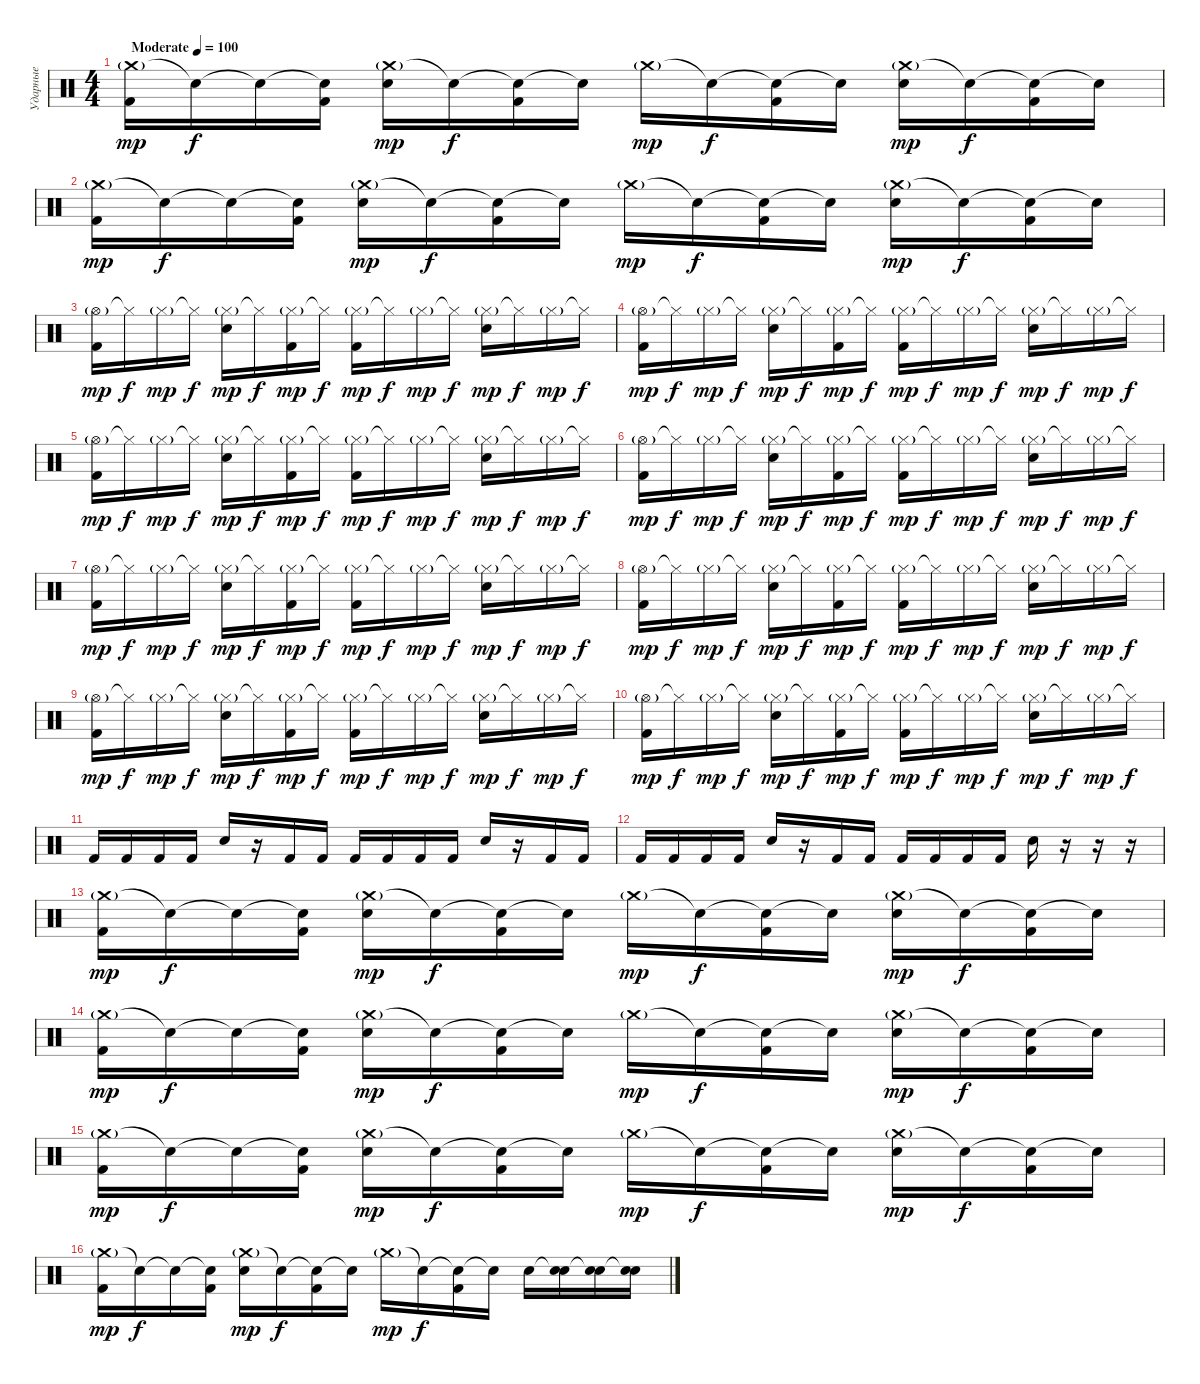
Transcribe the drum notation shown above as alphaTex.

\track ("Ударные" "Ударные") {instrument percussion}
\staff {score}
\articulation defaults
\ts (4 4)
\tempo (100 "Moderate")
\clef neutral
\ks c
("Crash medium (hit)"{g} "Kick (hit) 2").16{dy mp} "Snare (hit)"{t}.16{dy f} "Snare (hit)"{t}.16 ("Snare (hit)"{t} "Kick (hit) 2").16 ("Crash medium (hit)"{g} "Electric Snare (hit)").16{dy mp} "Snare (hit)"{t}.16{dy f} ("Snare (hit)"{t} "Kick (hit) 2").16 "Snare (hit)"{t}.16 "Crash medium (hit)"{g}.16{dy mp} "Snare (hit)"{t}.16{dy f} ("Snare (hit)"{t} "Kick (hit) 2").16 "Snare (hit)"{t}.16 ("Crash medium (hit)"{g} "Electric Snare (hit)").16{dy mp} "Snare (hit)"{t}.16{dy f} ("Snare (hit)"{t} "Kick (hit) 2").16 "Snare (hit)"{t}.16 |
("Crash medium (hit)"{g} "Kick (hit) 2").16{dy mp} "Snare (hit)"{t}.16{dy f} "Snare (hit)"{t}.16 ("Snare (hit)"{t} "Kick (hit) 2").16 ("Crash medium (hit)"{g} "Electric Snare (hit)").16{dy mp} "Snare (hit)"{t}.16{dy f} ("Snare (hit)"{t} "Kick (hit) 2").16 "Snare (hit)"{t}.16 "Crash medium (hit)"{g}.16{dy mp} "Snare (hit)"{t}.16{dy f} ("Snare (hit)"{t} "Kick (hit) 2").16 "Snare (hit)"{t}.16 ("Crash medium (hit)"{g} "Electric Snare (hit)").16{dy mp} "Snare (hit)"{t}.16{dy f} ("Snare (hit)"{t} "Kick (hit) 2").16 "Snare (hit)"{t}.16 |
("Hi-Hat (open)"{g} "Kick (hit) 2").16{dy mp} "Hi-Hat (closed)"{t}.16{dy f} "Hi-Hat (closed)"{g}.16{dy mp} "Hi-Hat (closed)"{t}.16{dy f} ("Hi-Hat (closed)"{g} "Electric Snare (hit)").16{dy mp} "Hi-Hat (closed)"{t}.16{dy f} ("Hi-Hat (closed)"{g} "Kick (hit) 2").16{dy mp} "Hi-Hat (closed)"{t}.16{dy f} ("Hi-Hat (closed)"{g} "Kick (hit) 2").16{dy mp} "Hi-Hat (closed)"{t}.16{dy f} "Hi-Hat (closed)"{g}.16{dy mp} "Hi-Hat (closed)"{t}.16{dy f} ("Hi-Hat (closed)"{g} "Electric Snare (hit)").16{dy mp} "Hi-Hat (closed)"{t}.16{dy f} "Hi-Hat (closed)"{g}.16{dy mp} "Hi-Hat (closed)"{t}.16{dy f} |
("Hi-Hat (open)"{g} "Kick (hit) 2").16{dy mp} "Hi-Hat (closed)"{t}.16{dy f} "Hi-Hat (closed)"{g}.16{dy mp} "Hi-Hat (closed)"{t}.16{dy f} ("Hi-Hat (closed)"{g} "Electric Snare (hit)").16{dy mp} "Hi-Hat (closed)"{t}.16{dy f} ("Hi-Hat (closed)"{g} "Kick (hit) 2").16{dy mp} "Hi-Hat (closed)"{t}.16{dy f} ("Hi-Hat (closed)"{g} "Kick (hit) 2").16{dy mp} "Hi-Hat (closed)"{t}.16{dy f} "Hi-Hat (closed)"{g}.16{dy mp} "Hi-Hat (closed)"{t}.16{dy f} ("Hi-Hat (closed)"{g} "Electric Snare (hit)").16{dy mp} "Hi-Hat (closed)"{t}.16{dy f} "Hi-Hat (closed)"{g}.16{dy mp} "Hi-Hat (closed)"{t}.16{dy f} |
("Hi-Hat (open)"{g} "Kick (hit) 2").16{dy mp} "Hi-Hat (closed)"{t}.16{dy f} "Hi-Hat (closed)"{g}.16{dy mp} "Hi-Hat (closed)"{t}.16{dy f} ("Hi-Hat (closed)"{g} "Electric Snare (hit)").16{dy mp} "Hi-Hat (closed)"{t}.16{dy f} ("Hi-Hat (closed)"{g} "Kick (hit) 2").16{dy mp} "Hi-Hat (closed)"{t}.16{dy f} ("Hi-Hat (closed)"{g} "Kick (hit) 2").16{dy mp} "Hi-Hat (closed)"{t}.16{dy f} "Hi-Hat (closed)"{g}.16{dy mp} "Hi-Hat (closed)"{t}.16{dy f} ("Hi-Hat (closed)"{g} "Electric Snare (hit)").16{dy mp} "Hi-Hat (closed)"{t}.16{dy f} "Hi-Hat (closed)"{g}.16{dy mp} "Hi-Hat (closed)"{t}.16{dy f} |
("Hi-Hat (open)"{g} "Kick (hit) 2").16{dy mp} "Hi-Hat (closed)"{t}.16{dy f} "Hi-Hat (closed)"{g}.16{dy mp} "Hi-Hat (closed)"{t}.16{dy f} ("Hi-Hat (closed)"{g} "Electric Snare (hit)").16{dy mp} "Hi-Hat (closed)"{t}.16{dy f} ("Hi-Hat (closed)"{g} "Kick (hit) 2").16{dy mp} "Hi-Hat (closed)"{t}.16{dy f} ("Hi-Hat (closed)"{g} "Kick (hit) 2").16{dy mp} "Hi-Hat (closed)"{t}.16{dy f} "Hi-Hat (closed)"{g}.16{dy mp} "Hi-Hat (closed)"{t}.16{dy f} ("Hi-Hat (closed)"{g} "Electric Snare (hit)").16{dy mp} "Hi-Hat (closed)"{t}.16{dy f} "Hi-Hat (closed)"{g}.16{dy mp} "Hi-Hat (closed)"{t}.16{dy f} |
("Hi-Hat (open)"{g} "Kick (hit) 2").16{dy mp} "Hi-Hat (closed)"{t}.16{dy f} "Hi-Hat (closed)"{g}.16{dy mp} "Hi-Hat (closed)"{t}.16{dy f} ("Hi-Hat (closed)"{g} "Electric Snare (hit)").16{dy mp} "Hi-Hat (closed)"{t}.16{dy f} ("Hi-Hat (closed)"{g} "Kick (hit) 2").16{dy mp} "Hi-Hat (closed)"{t}.16{dy f} ("Hi-Hat (closed)"{g} "Kick (hit) 2").16{dy mp} "Hi-Hat (closed)"{t}.16{dy f} "Hi-Hat (closed)"{g}.16{dy mp} "Hi-Hat (closed)"{t}.16{dy f} ("Hi-Hat (closed)"{g} "Electric Snare (hit)").16{dy mp} "Hi-Hat (closed)"{t}.16{dy f} "Hi-Hat (closed)"{g}.16{dy mp} "Hi-Hat (closed)"{t}.16{dy f} |
("Hi-Hat (open)"{g} "Kick (hit) 2").16{dy mp} "Hi-Hat (closed)"{t}.16{dy f} "Hi-Hat (closed)"{g}.16{dy mp} "Hi-Hat (closed)"{t}.16{dy f} ("Hi-Hat (closed)"{g} "Electric Snare (hit)").16{dy mp} "Hi-Hat (closed)"{t}.16{dy f} ("Hi-Hat (closed)"{g} "Kick (hit) 2").16{dy mp} "Hi-Hat (closed)"{t}.16{dy f} ("Hi-Hat (closed)"{g} "Kick (hit) 2").16{dy mp} "Hi-Hat (closed)"{t}.16{dy f} "Hi-Hat (closed)"{g}.16{dy mp} "Hi-Hat (closed)"{t}.16{dy f} ("Hi-Hat (closed)"{g} "Electric Snare (hit)").16{dy mp} "Hi-Hat (closed)"{t}.16{dy f} "Hi-Hat (closed)"{g}.16{dy mp} "Hi-Hat (closed)"{t}.16{dy f} |
("Hi-Hat (open)"{g} "Kick (hit) 2").16{dy mp} "Hi-Hat (closed)"{t}.16{dy f} "Hi-Hat (closed)"{g}.16{dy mp} "Hi-Hat (closed)"{t}.16{dy f} ("Hi-Hat (closed)"{g} "Electric Snare (hit)").16{dy mp} "Hi-Hat (closed)"{t}.16{dy f} ("Hi-Hat (closed)"{g} "Kick (hit) 2").16{dy mp} "Hi-Hat (closed)"{t}.16{dy f} ("Hi-Hat (closed)"{g} "Kick (hit) 2").16{dy mp} "Hi-Hat (closed)"{t}.16{dy f} "Hi-Hat (closed)"{g}.16{dy mp} "Hi-Hat (closed)"{t}.16{dy f} ("Hi-Hat (closed)"{g} "Electric Snare (hit)").16{dy mp} "Hi-Hat (closed)"{t}.16{dy f} "Hi-Hat (closed)"{g}.16{dy mp} "Hi-Hat (closed)"{t}.16{dy f} |
("Hi-Hat (open)"{g} "Kick (hit) 2").16{dy mp} "Hi-Hat (closed)"{t}.16{dy f} "Hi-Hat (closed)"{g}.16{dy mp} "Hi-Hat (closed)"{t}.16{dy f} ("Hi-Hat (closed)"{g} "Electric Snare (hit)").16{dy mp} "Hi-Hat (closed)"{t}.16{dy f} ("Hi-Hat (closed)"{g} "Kick (hit) 2").16{dy mp} "Hi-Hat (closed)"{t}.16{dy f} ("Hi-Hat (closed)"{g} "Kick (hit) 2").16{dy mp} "Hi-Hat (closed)"{t}.16{dy f} "Hi-Hat (closed)"{g}.16{dy mp} "Hi-Hat (closed)"{t}.16{dy f} ("Hi-Hat (closed)"{g} "Electric Snare (hit)").16{dy mp} "Hi-Hat (closed)"{t}.16{dy f} "Hi-Hat (closed)"{g}.16{dy mp} "Hi-Hat (closed)"{t}.16{dy f} |
"Kick (hit) 2".16 "Kick (hit) 2".16 "Kick (hit) 2".16 "Kick (hit) 2".16 "Electric Snare (hit)".16 r.16 "Kick (hit) 2".16 "Kick (hit) 2".16 "Kick (hit) 2".16 "Kick (hit) 2".16 "Kick (hit) 2".16 "Kick (hit) 2".16 "Electric Snare (hit)".16 r.16 "Kick (hit) 2".16 "Kick (hit) 2".16 |
"Kick (hit) 2".16 "Kick (hit) 2".16 "Kick (hit) 2".16 "Kick (hit) 2".16 "Electric Snare (hit)".16 r.16 "Kick (hit) 2".16 "Kick (hit) 2".16 "Kick (hit) 2".16 "Kick (hit) 2".16 "Kick (hit) 2".16 "Kick (hit) 2".16 "Electric Snare (hit)".16 r.16 r.16 r.16 |
("Crash medium (hit)"{g} "Kick (hit) 2").16{dy mp} "Snare (hit)"{t}.16{dy f} "Snare (hit)"{t}.16 ("Snare (hit)"{t} "Kick (hit) 2").16 ("Crash medium (hit)"{g} "Electric Snare (hit)").16{dy mp} "Snare (hit)"{t}.16{dy f} ("Snare (hit)"{t} "Kick (hit) 2").16 "Snare (hit)"{t}.16 "Crash medium (hit)"{g}.16{dy mp} "Snare (hit)"{t}.16{dy f} ("Snare (hit)"{t} "Kick (hit) 2").16 "Snare (hit)"{t}.16 ("Crash medium (hit)"{g} "Electric Snare (hit)").16{dy mp} "Snare (hit)"{t}.16{dy f} ("Snare (hit)"{t} "Kick (hit) 2").16 "Snare (hit)"{t}.16 |
("Crash medium (hit)"{g} "Kick (hit) 2").16{dy mp} "Snare (hit)"{t}.16{dy f} "Snare (hit)"{t}.16 ("Snare (hit)"{t} "Kick (hit) 2").16 ("Crash medium (hit)"{g} "Electric Snare (hit)").16{dy mp} "Snare (hit)"{t}.16{dy f} ("Snare (hit)"{t} "Kick (hit) 2").16 "Snare (hit)"{t}.16 "Crash medium (hit)"{g}.16{dy mp} "Snare (hit)"{t}.16{dy f} ("Snare (hit)"{t} "Kick (hit) 2").16 "Snare (hit)"{t}.16 ("Crash medium (hit)"{g} "Electric Snare (hit)").16{dy mp} "Snare (hit)"{t}.16{dy f} ("Snare (hit)"{t} "Kick (hit) 2").16 "Snare (hit)"{t}.16 |
("Crash medium (hit)"{g} "Kick (hit) 2").16{dy mp} "Snare (hit)"{t}.16{dy f} "Snare (hit)"{t}.16 ("Snare (hit)"{t} "Kick (hit) 2").16 ("Crash medium (hit)"{g} "Electric Snare (hit)").16{dy mp} "Snare (hit)"{t}.16{dy f} ("Snare (hit)"{t} "Kick (hit) 2").16 "Snare (hit)"{t}.16 "Crash medium (hit)"{g}.16{dy mp} "Snare (hit)"{t}.16{dy f} ("Snare (hit)"{t} "Kick (hit) 2").16 "Snare (hit)"{t}.16 ("Crash medium (hit)"{g} "Electric Snare (hit)").16{dy mp} "Snare (hit)"{t}.16{dy f} ("Snare (hit)"{t} "Kick (hit) 2").16 "Snare (hit)"{t}.16 |
("Crash medium (hit)"{g} "Kick (hit) 2").16{dy mp} "Snare (hit)"{t}.16{dy f} "Snare (hit)"{t}.16 ("Snare (hit)"{t} "Kick (hit) 2").16 ("Crash medium (hit)"{g} "Electric Snare (hit)").16{dy mp} "Snare (hit)"{t}.16{dy f} ("Snare (hit)"{t} "Kick (hit) 2").16 "Snare (hit)"{t}.16 "Crash medium (hit)"{g}.16{dy mp} "Snare (hit)"{t}.16{dy f} ("Snare (hit)"{t} "Kick (hit) 2").16 "Snare (hit)"{t}.16 "Electric Snare (hit)".16 ("Snare (hit)"{t} "Electric Snare (hit)").16 ("Snare (hit)"{t} "Electric Snare (hit)").16 ("Snare (hit)"{t} "Electric Snare (hit)").16
